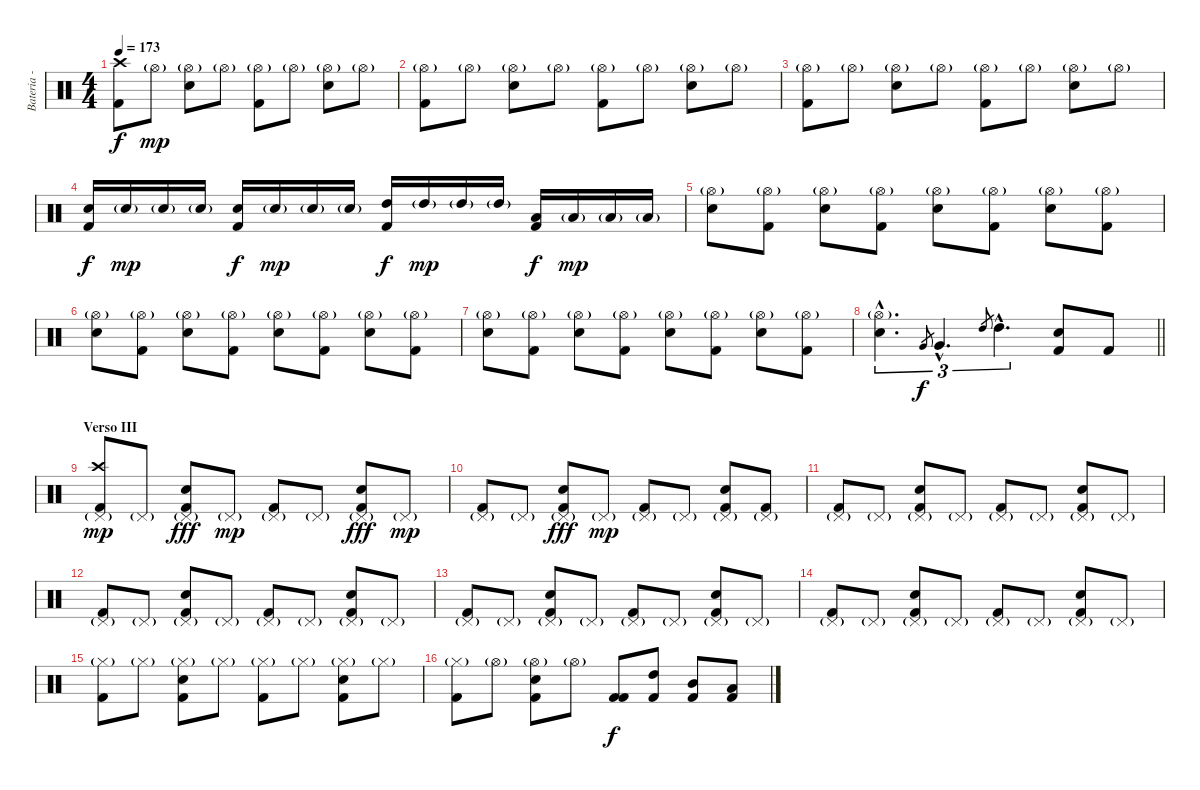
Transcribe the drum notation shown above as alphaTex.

\track ("Bateria - Larzon " "Bateria - ") {instrument percussion}
\staff {score}
\articulation defaults
\ts (4 4)
\tempo 173
\clef neutral
\ks c
("Kick (hit) 2" "Crash high (hit)").8{dy f} "Hi-Hat (open)"{g}.8{dy mp} ("Hi-Hat (open)"{g} "Electric Snare (hit)").8 "Hi-Hat (open)"{g}.8 ("Kick (hit) 2" "Hi-Hat (open)"{g}).8 "Hi-Hat (open)"{g}.8 ("Hi-Hat (open)"{g} "Electric Snare (hit)").8 "Hi-Hat (open)"{g}.8 |
("Kick (hit) 2" "Hi-Hat (open)"{g}).8 "Hi-Hat (open)"{g}.8 ("Hi-Hat (open)"{g} "Electric Snare (hit)").8 "Hi-Hat (open)"{g}.8 ("Kick (hit) 2" "Hi-Hat (open)"{g}).8 "Hi-Hat (open)"{g}.8 ("Hi-Hat (open)"{g} "Electric Snare (hit)").8 "Hi-Hat (open)"{g}.8 |
("Kick (hit) 2" "Hi-Hat (open)"{g}).8 "Hi-Hat (open)"{g}.8 ("Hi-Hat (open)"{g} "Electric Snare (hit)").8 "Hi-Hat (open)"{g}.8 ("Kick (hit) 2" "Hi-Hat (open)"{g}).8 "Hi-Hat (open)"{g}.8 ("Hi-Hat (open)"{g} "Electric Snare (hit)").8 "Hi-Hat (open)"{g}.8 |
("Electric Snare (hit)" "Kick (hit) 2").16{dy f} "Electric Snare (hit)"{g}.16{dy mp} "Electric Snare (hit)"{g}.16 "Electric Snare (hit)"{g}.16 ("Electric Snare (hit)" "Kick (hit) 2").16{dy f} "Electric Snare (hit)"{g}.16{dy mp} "Electric Snare (hit)"{g}.16 "Electric Snare (hit)"{g}.16 ("High Tom (hit)" "Kick (hit) 2").16{dy f} "High Tom (hit)"{g}.16{dy mp} "High Tom (hit)"{g}.16 "High Tom (hit)"{g}.16 ("Low Tom (hit)" "Kick (hit) 2").16{dy f} "Low Tom (hit)"{g}.16{dy mp} "Low Tom (hit)"{g}.16 "Low Tom (hit)"{g}.16 |
("Electric Snare (hit)" "Hi-Hat (open)"{g}).8 ("Kick (hit) 2" "Hi-Hat (open)"{g}).8 ("Electric Snare (hit)" "Hi-Hat (open)"{g}).8 ("Kick (hit) 2" "Hi-Hat (open)"{g}).8 ("Electric Snare (hit)" "Hi-Hat (open)"{g}).8 ("Kick (hit) 2" "Hi-Hat (open)"{g}).8 ("Electric Snare (hit)" "Hi-Hat (open)"{g}).8 ("Kick (hit) 2" "Hi-Hat (open)"{g}).8 |
("Electric Snare (hit)" "Hi-Hat (open)"{g}).8 ("Kick (hit) 2" "Hi-Hat (open)"{g}).8 ("Electric Snare (hit)" "Hi-Hat (open)"{g}).8 ("Kick (hit) 2" "Hi-Hat (open)"{g}).8 ("Electric Snare (hit)" "Hi-Hat (open)"{g}).8 ("Kick (hit) 2" "Hi-Hat (open)"{g}).8 ("Electric Snare (hit)" "Hi-Hat (open)"{g}).8 ("Kick (hit) 2" "Hi-Hat (open)"{g}).8 |
("Electric Snare (hit)" "Hi-Hat (open)"{g}).8 ("Kick (hit) 2" "Hi-Hat (open)"{g}).8 ("Electric Snare (hit)" "Hi-Hat (open)"{g}).8 ("Kick (hit) 2" "Hi-Hat (open)"{g}).8 ("Electric Snare (hit)" "Hi-Hat (open)"{g}).8 ("Kick (hit) 2" "Hi-Hat (open)"{g}).8 ("Electric Snare (hit)" "Hi-Hat (open)"{g}).8 ("Kick (hit) 2" "Hi-Hat (open)"{g}).8 |
\barLineRight lightlight
("Electric Snare (hit)" "Hi-Hat (open)"{g hac}).4{d tu (3 2)} "Very Low Tom (hit)".8{gr dy f} "Very Low Tom (hit)"{hac}.4{d tu (3 2)} "High Tom (hit)".8{gr} "High Tom (hit)"{hac}.4{d tu (3 2)} ("Kick (hit) 2" "Electric Snare (hit)").8 "Kick (hit) 2".8 |
\section ("" "Verso III")
("Kick (hit) 2" "Pedal Hi-Hat (hit)"{g} "Crash high (hit)").8{dy mp} "Pedal Hi-Hat (hit)"{g}.8 ("Pedal Hi-Hat (hit)"{g} "Electric Snare (hit)" "Kick (hit) 2").8{dy fff} "Pedal Hi-Hat (hit)"{g}.8{dy mp} ("Kick (hit) 2" "Pedal Hi-Hat (hit)"{g}).8 "Pedal Hi-Hat (hit)"{g}.8 ("Pedal Hi-Hat (hit)"{g} "Electric Snare (hit)" "Kick (hit) 2").8{dy fff} "Pedal Hi-Hat (hit)"{g}.8{dy mp} |
("Kick (hit) 2" "Pedal Hi-Hat (hit)"{g}).8 "Pedal Hi-Hat (hit)"{g}.8 ("Pedal Hi-Hat (hit)"{g} "Electric Snare (hit)" "Kick (hit) 2").8{dy fff} "Pedal Hi-Hat (hit)"{g}.8{dy mp} ("Kick (hit) 2" "Pedal Hi-Hat (hit)"{g}).8 "Pedal Hi-Hat (hit)"{g}.8 ("Pedal Hi-Hat (hit)"{g} "Electric Snare (hit)" "Kick (hit) 2").8 ("Kick (hit) 2" "Pedal Hi-Hat (hit)"{g}).8 |
("Kick (hit) 2" "Pedal Hi-Hat (hit)"{g}).8 "Pedal Hi-Hat (hit)"{g}.8 ("Pedal Hi-Hat (hit)"{g} "Electric Snare (hit)" "Kick (hit) 2").8 "Pedal Hi-Hat (hit)"{g}.8 ("Kick (hit) 2" "Pedal Hi-Hat (hit)"{g}).8 "Pedal Hi-Hat (hit)"{g}.8 ("Pedal Hi-Hat (hit)"{g} "Electric Snare (hit)" "Kick (hit) 2").8 "Pedal Hi-Hat (hit)"{g}.8 |
("Kick (hit) 2" "Pedal Hi-Hat (hit)"{g}).8 "Pedal Hi-Hat (hit)"{g}.8 ("Pedal Hi-Hat (hit)"{g} "Electric Snare (hit)" "Kick (hit) 2").8 "Pedal Hi-Hat (hit)"{g}.8 ("Kick (hit) 2" "Pedal Hi-Hat (hit)"{g}).8 "Pedal Hi-Hat (hit)"{g}.8 ("Pedal Hi-Hat (hit)"{g} "Electric Snare (hit)" "Kick (hit) 2").8 "Pedal Hi-Hat (hit)"{g}.8 |
("Kick (hit) 2" "Pedal Hi-Hat (hit)"{g}).8 "Pedal Hi-Hat (hit)"{g}.8 ("Pedal Hi-Hat (hit)"{g} "Electric Snare (hit)" "Kick (hit) 2").8 "Pedal Hi-Hat (hit)"{g}.8 ("Kick (hit) 2" "Pedal Hi-Hat (hit)"{g}).8 "Pedal Hi-Hat (hit)"{g}.8 ("Pedal Hi-Hat (hit)"{g} "Electric Snare (hit)" "Kick (hit) 2").8 "Pedal Hi-Hat (hit)"{g}.8 |
("Kick (hit) 2" "Pedal Hi-Hat (hit)"{g}).8 "Pedal Hi-Hat (hit)"{g}.8 ("Pedal Hi-Hat (hit)"{g} "Electric Snare (hit)" "Kick (hit) 2").8 "Pedal Hi-Hat (hit)"{g}.8 ("Kick (hit) 2" "Pedal Hi-Hat (hit)"{g}).8 "Pedal Hi-Hat (hit)"{g}.8 ("Pedal Hi-Hat (hit)"{g} "Electric Snare (hit)" "Kick (hit) 2").8 "Pedal Hi-Hat (hit)"{g}.8 |
("Kick (hit) 2" "Hi-Hat (closed)"{g}).8 "Hi-Hat (closed)"{g}.8 ("Hi-Hat (closed)"{g} "Electric Snare (hit)" "Kick (hit) 2").8 "Hi-Hat (closed)"{g}.8 ("Kick (hit) 2" "Hi-Hat (closed)"{g}).8 "Hi-Hat (closed)"{g}.8 ("Hi-Hat (closed)"{g} "Electric Snare (hit)" "Kick (hit) 2").8 "Hi-Hat (closed)"{g}.8 |
("Kick (hit) 2" "Hi-Hat (closed)"{g}).8 "Hi-Hat (open)"{g}.8 ("Hi-Hat (open)"{g} "Electric Snare (hit)" "Kick (hit) 2").8 "Hi-Hat (open)"{g}.8 ("Kick (hit) 2" "Kick (hit) 2").8{dy f} ("High Tom (hit)" "Kick (hit) 2").8 ("Mid Tom (hit)" "Kick (hit) 2").8 ("Low Tom (hit)" "Kick (hit) 2").8
